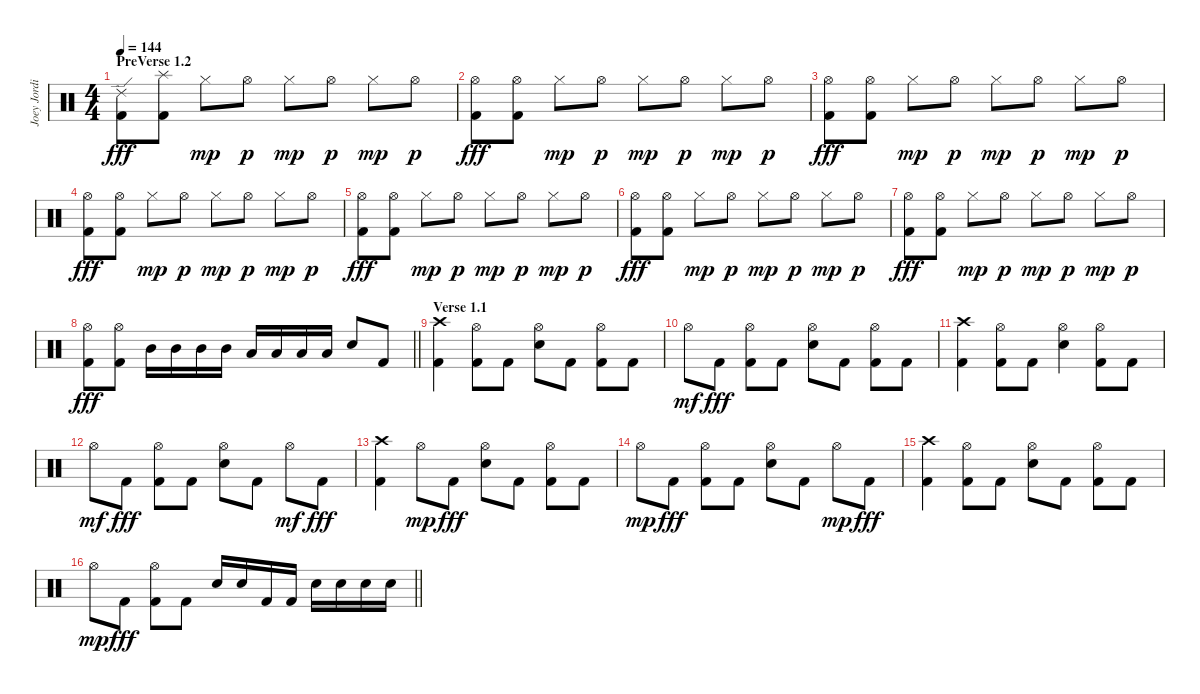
\track ("Joey Jordison" "Joey Jordi") {instrument percussion}
\staff {score}
\articulation defaults
\ts (4 4)
\section ("" "PreVerse 1.2")
\tempo 144
\clef neutral
\ks c
("Ride (edge) 2" "Kick (hit) 2").8{dy fff} ("Splash (hit)" "Kick (hit) 2").8 "Hi-Hat (closed)".8{dy mp} "Hi-Hat (open)".8{dy p} "Hi-Hat (closed)".8{dy mp} "Hi-Hat (open)".8{dy p} "Hi-Hat (closed)".8{dy mp} "Hi-Hat (open)".8{dy p} |
("Hi-Hat (open)" "Kick (hit) 2").8{dy fff} ("Hi-Hat (open)" "Kick (hit) 2").8 "Hi-Hat (closed)".8{dy mp} "Hi-Hat (open)".8{dy p} "Hi-Hat (closed)".8{dy mp} "Hi-Hat (open)".8{dy p} "Hi-Hat (closed)".8{dy mp} "Hi-Hat (open)".8{dy p} |
("Hi-Hat (open)" "Kick (hit) 2").8{dy fff} ("Hi-Hat (open)" "Kick (hit) 2").8 "Hi-Hat (closed)".8{dy mp} "Hi-Hat (open)".8{dy p} "Hi-Hat (closed)".8{dy mp} "Hi-Hat (open)".8{dy p} "Hi-Hat (closed)".8{dy mp} "Hi-Hat (open)".8{dy p} |
("Hi-Hat (open)" "Kick (hit) 2").8{dy fff} ("Hi-Hat (open)" "Kick (hit) 2").8 "Hi-Hat (closed)".8{dy mp} "Hi-Hat (open)".8{dy p} "Hi-Hat (closed)".8{dy mp} "Hi-Hat (open)".8{dy p} "Hi-Hat (closed)".8{dy mp} "Hi-Hat (open)".8{dy p} |
("Hi-Hat (open)" "Kick (hit) 2").8{dy fff} ("Hi-Hat (open)" "Kick (hit) 2").8 "Hi-Hat (closed)".8{dy mp} "Hi-Hat (open)".8{dy p} "Hi-Hat (closed)".8{dy mp} "Hi-Hat (open)".8{dy p} "Hi-Hat (closed)".8{dy mp} "Hi-Hat (open)".8{dy p} |
("Hi-Hat (open)" "Kick (hit) 2").8{dy fff} ("Hi-Hat (open)" "Kick (hit) 2").8 "Hi-Hat (closed)".8{dy mp} "Hi-Hat (open)".8{dy p} "Hi-Hat (closed)".8{dy mp} "Hi-Hat (open)".8{dy p} "Hi-Hat (closed)".8{dy mp} "Hi-Hat (open)".8{dy p} |
("Hi-Hat (open)" "Kick (hit) 2").8{dy fff} ("Hi-Hat (open)" "Kick (hit) 2").8 "Hi-Hat (closed)".8{dy mp} "Hi-Hat (open)".8{dy p} "Hi-Hat (closed)".8{dy mp} "Hi-Hat (open)".8{dy p} "Hi-Hat (closed)".8{dy mp} "Hi-Hat (open)".8{dy p} |
\barLineRight lightlight
("Hi-Hat (open)" "Kick (hit) 2").8{dy fff} ("Hi-Hat (open)" "Kick (hit) 2").8 "Mid Tom (hit)".16 "Mid Tom (hit)".16 "Mid Tom (hit)".16 "Mid Tom (hit)".16 "Low Tom (hit)".16 "Low Tom (hit)".16 "Low Tom (hit)".16 "Low Tom (hit)".16 "Electric Snare (hit)".8 "Kick (hit) 2".8 |
\section ("" "Verse 1.1")
("Crash high (hit)" "Kick (hit) 2").4 ("Hi-Hat (open)" "Kick (hit) 2").8 "Kick (hit) 2".8 ("Hi-Hat (open)" "Electric Snare (hit)").8 "Kick (hit) 2".8 ("Hi-Hat (open)" "Kick (hit) 2").8 "Kick (hit) 2".8 |
"Hi-Hat (open)".8{dy mf} "Kick (hit) 2".8{dy fff} ("Hi-Hat (open)" "Kick (hit) 2").8 "Kick (hit) 2".8 ("Hi-Hat (open)" "Electric Snare (hit)").8 "Kick (hit) 2".8 ("Hi-Hat (open)" "Kick (hit) 2").8 "Kick (hit) 2".8 |
("Crash high (hit)" "Kick (hit) 2").4 ("Hi-Hat (open)" "Kick (hit) 2").8 "Kick (hit) 2".8 ("Hi-Hat (open)" "Electric Snare (hit)").4 ("Hi-Hat (open)" "Kick (hit) 2").8 "Kick (hit) 2".8 |
"Hi-Hat (open)".8{dy mf} "Kick (hit) 2".8{dy fff} ("Hi-Hat (open)" "Kick (hit) 2").8 "Kick (hit) 2".8 ("Hi-Hat (open)" "Electric Snare (hit)").8 "Kick (hit) 2".8 "Hi-Hat (open)".8{dy mf} "Kick (hit) 2".8{dy fff} |
("Crash high (hit)" "Kick (hit) 2").4 "Hi-Hat (open)".8{dy mp} "Kick (hit) 2".8{dy fff} ("Hi-Hat (open)" "Electric Snare (hit)").8 "Kick (hit) 2".8 ("Hi-Hat (open)" "Kick (hit) 2").8 "Kick (hit) 2".8 |
"Hi-Hat (open)".8{dy mp} "Kick (hit) 2".8{dy fff} ("Hi-Hat (open)" "Kick (hit) 2").8 "Kick (hit) 2".8 ("Hi-Hat (open)" "Electric Snare (hit)").8 "Kick (hit) 2".8 "Hi-Hat (open)".8{dy mp} "Kick (hit) 2".8{dy fff} |
("Crash high (hit)" "Kick (hit) 2").4 ("Hi-Hat (open)" "Kick (hit) 2").8 "Kick (hit) 2".8 ("Hi-Hat (open)" "Electric Snare (hit)").8 "Kick (hit) 2".8 ("Hi-Hat (open)" "Kick (hit) 2").8 "Kick (hit) 2".8 |
\barLineRight lightlight "Hi-Hat (open)".8{dy mp} "Kick (hit) 2".8{dy fff}
("Hi-Hat (open)" "Kick (hit) 2").8 "Kick (hit) 2".8 "Electric Snare (hit)".16 "Electric Snare (hit)".16 "Kick (hit) 2".16 "Kick (hit) 2".16 "Electric Snare (hit)".16 "Electric Snare (hit)".16 "Electric Snare (hit)".16 "Electric Snare (hit)".16
